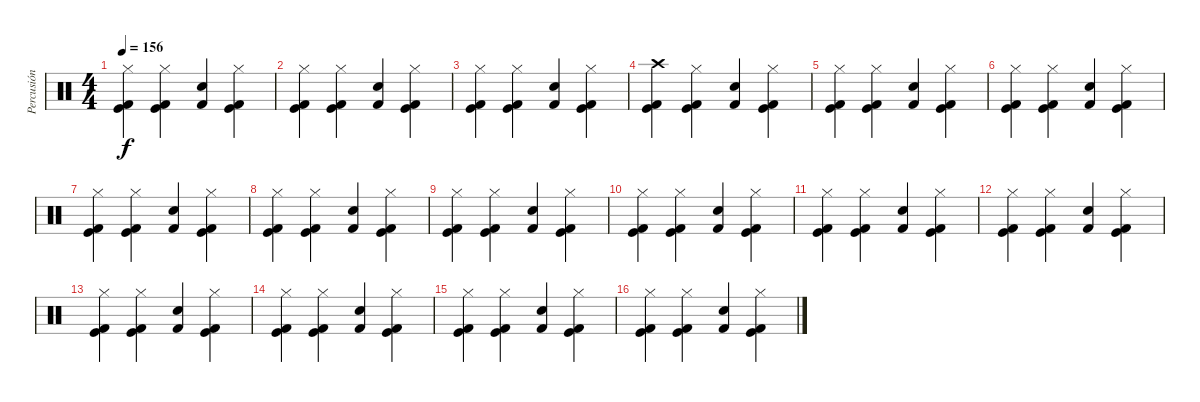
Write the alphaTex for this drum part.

\track ("Percusión" "Percusión") {instrument percussion}
\staff {score}
\articulation defaults
\ts (4 4)
\tempo 156
\clef neutral
\ks c
("Kick (hit) 2" "Kick (hit)" "Hi-Hat (closed)").4{dy f} ("Kick (hit) 2" "Kick (hit)" "Hi-Hat (closed)").4 ("Kick (hit) 2" "Snare (hit) 2").4 ("Kick (hit) 2" "Kick (hit)" "Hi-Hat (closed)").4 |
("Kick (hit) 2" "Kick (hit)" "Hi-Hat (closed)").4 ("Kick (hit) 2" "Kick (hit)" "Hi-Hat (closed)").4 ("Kick (hit) 2" "Snare (hit) 2").4 ("Kick (hit) 2" "Kick (hit)" "Hi-Hat (closed)").4 |
("Kick (hit) 2" "Kick (hit)" "Hi-Hat (closed)").4 ("Kick (hit) 2" "Kick (hit)" "Hi-Hat (closed)").4 ("Kick (hit) 2" "Snare (hit) 2").4 ("Kick (hit) 2" "Kick (hit)" "Hi-Hat (closed)").4 |
("Kick (hit) 2" "Kick (hit)" "Crash high (hit)").4 ("Kick (hit) 2" "Kick (hit)" "Hi-Hat (closed)").4 ("Kick (hit) 2" "Snare (hit) 2").4 ("Kick (hit) 2" "Kick (hit)" "Hi-Hat (closed)").4 |
("Kick (hit) 2" "Kick (hit)" "Hi-Hat (closed)").4 ("Kick (hit) 2" "Kick (hit)" "Hi-Hat (closed)").4 ("Kick (hit) 2" "Snare (hit) 2").4 ("Kick (hit) 2" "Kick (hit)" "Hi-Hat (closed)").4 |
("Kick (hit) 2" "Kick (hit)" "Hi-Hat (closed)").4 ("Kick (hit) 2" "Kick (hit)" "Hi-Hat (closed)").4 ("Kick (hit) 2" "Snare (hit) 2").4 ("Kick (hit) 2" "Kick (hit)" "Hi-Hat (closed)").4 |
("Kick (hit) 2" "Kick (hit)" "Hi-Hat (closed)").4 ("Kick (hit) 2" "Kick (hit)" "Hi-Hat (closed)").4 ("Kick (hit) 2" "Snare (hit) 2").4 ("Kick (hit) 2" "Kick (hit)" "Hi-Hat (closed)").4 |
("Kick (hit) 2" "Kick (hit)" "Hi-Hat (closed)").4 ("Kick (hit) 2" "Kick (hit)" "Hi-Hat (closed)").4 ("Kick (hit) 2" "Snare (hit) 2").4 ("Kick (hit) 2" "Kick (hit)" "Hi-Hat (closed)").4 |
("Kick (hit) 2" "Kick (hit)" "Hi-Hat (closed)").4 ("Kick (hit) 2" "Kick (hit)" "Hi-Hat (closed)").4 ("Kick (hit) 2" "Snare (hit) 2").4 ("Kick (hit) 2" "Kick (hit)" "Hi-Hat (closed)").4 |
("Kick (hit) 2" "Kick (hit)" "Hi-Hat (closed)").4 ("Kick (hit) 2" "Kick (hit)" "Hi-Hat (closed)").4 ("Kick (hit) 2" "Snare (hit) 2").4 ("Kick (hit) 2" "Kick (hit)" "Hi-Hat (closed)").4 |
("Kick (hit) 2" "Kick (hit)" "Hi-Hat (closed)").4 ("Kick (hit) 2" "Kick (hit)" "Hi-Hat (closed)").4 ("Kick (hit) 2" "Snare (hit) 2").4 ("Kick (hit) 2" "Kick (hit)" "Hi-Hat (closed)").4 |
("Kick (hit) 2" "Kick (hit)" "Hi-Hat (closed)").4 ("Kick (hit) 2" "Kick (hit)" "Hi-Hat (closed)").4 ("Kick (hit) 2" "Snare (hit) 2").4 ("Kick (hit) 2" "Kick (hit)" "Hi-Hat (closed)").4 |
("Kick (hit) 2" "Kick (hit)" "Hi-Hat (closed)").4 ("Kick (hit) 2" "Kick (hit)" "Hi-Hat (closed)").4 ("Kick (hit) 2" "Snare (hit) 2").4 ("Kick (hit) 2" "Kick (hit)" "Hi-Hat (closed)").4 |
("Kick (hit) 2" "Kick (hit)" "Hi-Hat (closed)").4 ("Kick (hit) 2" "Kick (hit)" "Hi-Hat (closed)").4 ("Kick (hit) 2" "Snare (hit) 2").4 ("Kick (hit) 2" "Kick (hit)" "Hi-Hat (closed)").4 |
("Kick (hit) 2" "Kick (hit)" "Hi-Hat (closed)").4 ("Kick (hit) 2" "Kick (hit)" "Hi-Hat (closed)").4 ("Kick (hit) 2" "Snare (hit) 2").4 ("Kick (hit) 2" "Kick (hit)" "Hi-Hat (closed)").4 |
("Kick (hit) 2" "Kick (hit)" "Hi-Hat (closed)").4 ("Kick (hit) 2" "Kick (hit)" "Hi-Hat (closed)").4 ("Kick (hit) 2" "Snare (hit) 2").4 ("Kick (hit) 2" "Kick (hit)" "Hi-Hat (closed)").4
